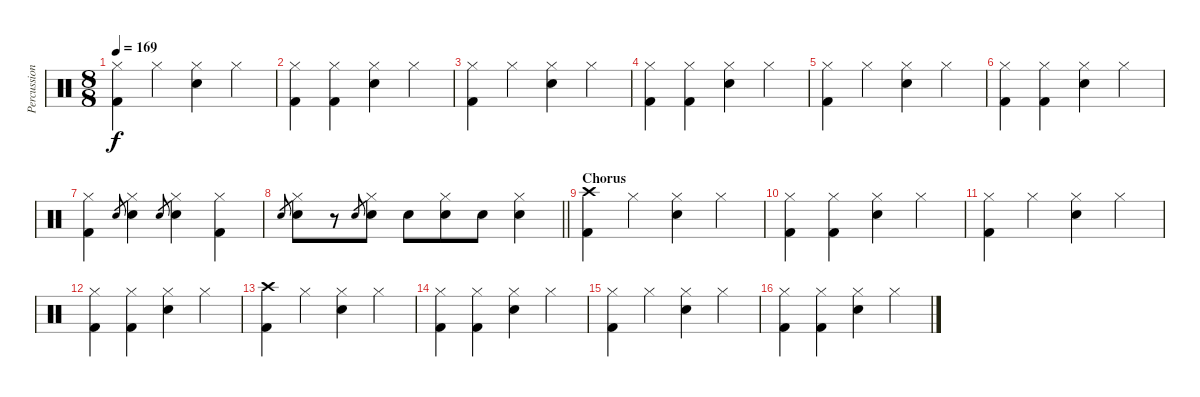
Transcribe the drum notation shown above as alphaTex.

\track ("Percussion" "Percussion") {instrument percussion}
\staff {score}
\articulation defaults
\ts (8 8)
\tempo 169
\clef neutral
\ks c
("Hi-Hat (closed)" "Kick (hit) 2").4{dy f} "Hi-Hat (closed)".4 ("Hi-Hat (closed)" "Snare (hit) 2").4 "Hi-Hat (closed)".4 |
("Hi-Hat (closed)" "Kick (hit) 2").4 ("Hi-Hat (closed)" "Kick (hit) 2").4 ("Hi-Hat (closed)" "Snare (hit) 2").4 "Hi-Hat (closed)".4 |
("Hi-Hat (closed)" "Kick (hit) 2").4 "Hi-Hat (closed)".4 ("Hi-Hat (closed)" "Snare (hit) 2").4 "Hi-Hat (closed)".4 |
("Hi-Hat (closed)" "Kick (hit) 2").4 ("Hi-Hat (closed)" "Kick (hit) 2").4 ("Hi-Hat (closed)" "Snare (hit) 2").4 "Hi-Hat (closed)".4 |
("Hi-Hat (closed)" "Kick (hit) 2").4 "Hi-Hat (closed)".4 ("Hi-Hat (closed)" "Snare (hit) 2").4 "Hi-Hat (closed)".4 |
("Hi-Hat (closed)" "Kick (hit) 2").4 ("Hi-Hat (closed)" "Kick (hit) 2").4 ("Hi-Hat (closed)" "Snare (hit) 2").4 "Hi-Hat (closed)".4 |
("Hi-Hat (closed)" "Kick (hit) 2").4 "Snare (hit) 2".8{gr} ("Hi-Hat (closed)" "Snare (hit) 2").4 "Snare (hit) 2".8{gr} ("Hi-Hat (closed)" "Snare (hit) 2").4 ("Hi-Hat (closed)" "Kick (hit) 2").4 |
\barLineRight lightlight "Snare (hit) 2".8{gr}
("Hi-Hat (closed)" "Snare (hit) 2").8 r.8 "Snare (hit) 2".8{gr} ("Hi-Hat (closed)" "Snare (hit) 2").8 "Snare (hit) 2".8 ("Hi-Hat (closed)" "Snare (hit) 2").8 "Snare (hit) 2".8 ("Hi-Hat (closed)" "Snare (hit) 2").4 |
\section ("" "Chorus")
("Crash high (hit)" "Kick (hit) 2").4 "Hi-Hat (closed)".4 ("Hi-Hat (closed)" "Snare (hit) 2").4 "Hi-Hat (closed)".4 |
("Hi-Hat (closed)" "Kick (hit) 2").4 ("Hi-Hat (closed)" "Kick (hit) 2").4 ("Hi-Hat (closed)" "Snare (hit) 2").4 "Hi-Hat (closed)".4 |
("Hi-Hat (closed)" "Kick (hit) 2").4 "Hi-Hat (closed)".4 ("Hi-Hat (closed)" "Snare (hit) 2").4 "Hi-Hat (closed)".4 |
("Hi-Hat (closed)" "Kick (hit) 2").4 ("Hi-Hat (closed)" "Kick (hit) 2").4 ("Hi-Hat (closed)" "Snare (hit) 2").4 "Hi-Hat (closed)".4 |
("Crash high (hit)" "Kick (hit) 2").4 "Hi-Hat (closed)".4 ("Hi-Hat (closed)" "Snare (hit) 2").4 "Hi-Hat (closed)".4 |
("Hi-Hat (closed)" "Kick (hit) 2").4 ("Hi-Hat (closed)" "Kick (hit) 2").4 ("Hi-Hat (closed)" "Snare (hit) 2").4 "Hi-Hat (closed)".4 |
("Hi-Hat (closed)" "Kick (hit) 2").4 "Hi-Hat (closed)".4 ("Hi-Hat (closed)" "Snare (hit) 2").4 "Hi-Hat (closed)".4 |
("Hi-Hat (closed)" "Kick (hit) 2").4 ("Hi-Hat (closed)" "Kick (hit) 2").4 ("Hi-Hat (closed)" "Snare (hit) 2").4 "Hi-Hat (closed)".4
